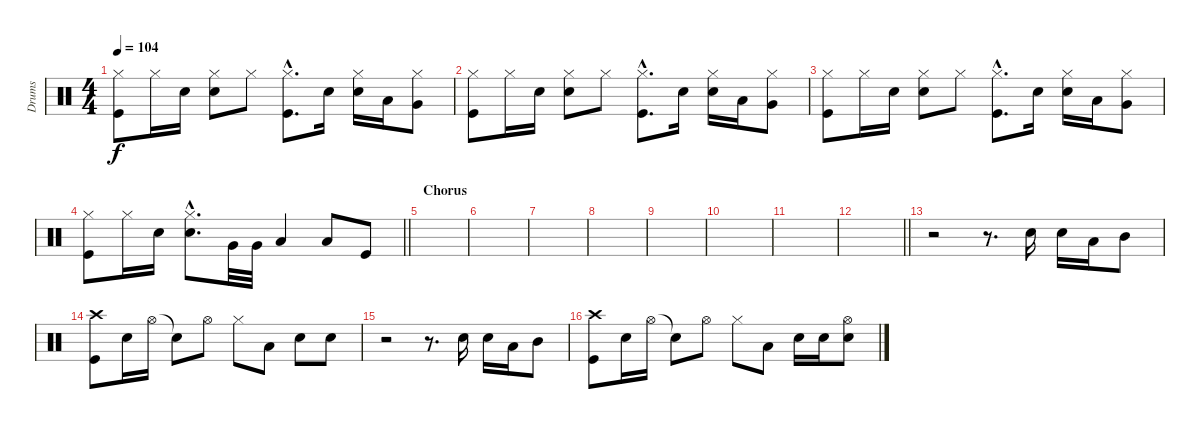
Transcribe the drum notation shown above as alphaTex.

\track ("Drums" "Drums") {instrument percussion}
\staff {score}
\articulation defaults
\ts (4 4)
\tempo 104
\clef neutral
\ks c
("Hi-Hat (closed)" "Kick (hit)").8{dy f} "Hi-Hat (closed)".16 "Snare (hit) 2".16 ("Hi-Hat (closed)" "Snare (hit) 2").8 "Hi-Hat (closed)".8 ("Hi-Hat (closed)"{hac} "Kick (hit)"{hac}).8{d} "Snare (hit) 2".16 ("Hi-Hat (closed)" "Snare (hit) 2").16 "Low Tom (hit)".16 ("Hi-Hat (closed)" "Very Low Tom (hit)").8 |
("Hi-Hat (closed)" "Kick (hit)").8 "Hi-Hat (closed)".16 "Snare (hit) 2".16 ("Hi-Hat (closed)" "Snare (hit) 2").8 "Hi-Hat (closed)".8 ("Hi-Hat (closed)"{hac} "Kick (hit)"{hac}).8{d} "Snare (hit) 2".16 ("Hi-Hat (closed)" "Snare (hit) 2").16 "Low Tom (hit)".16 ("Hi-Hat (closed)" "Very Low Tom (hit)").8 |
("Hi-Hat (closed)" "Kick (hit)").8 "Hi-Hat (closed)".16 "Snare (hit) 2".16 ("Hi-Hat (closed)" "Snare (hit) 2").8 "Hi-Hat (closed)".8 ("Hi-Hat (closed)"{hac} "Kick (hit)"{hac}).8{d} "Snare (hit) 2".16 ("Hi-Hat (closed)" "Snare (hit) 2").16 "Low Tom (hit)".16 ("Hi-Hat (closed)" "Very Low Tom (hit)").8 |
\barLineRight lightlight
("Hi-Hat (closed)" "Kick (hit)").8 "Hi-Hat (closed)".16 "Snare (hit) 2".16 ("Hi-Hat (closed)"{hac} "Snare (hit) 2"{hac}).8{d} "Very Low Tom (hit)".32 "Very Low Tom (hit)".32 "Low Floor Tom (hit)".4 "Low Floor Tom (hit)".8 "Kick (hit)".8 |
\section ("" "Chorus")
|
|
|
|
|
|
|
\barLineRight lightlight
|
r.2 r.8{d} "Snare (hit) 2".16 "Snare (hit) 2".16 "Low Tom (hit)".16 "Mid Tom (hit)".8 |
("Crash high (hit)" "Kick (hit)").8 "Snare (hit) 2".16 "Hi-Hat (open)".16 "Snare (hit)"{t}.8 "Hi-Hat (open)".8 "Hi-Hat (closed)".8 "Low Floor Tom (hit)".8 "Snare (hit) 2".8 "Snare (hit) 2".8 |
r.2 r.8{d} "Snare (hit) 2".16 "Snare (hit) 2".16 "Low Tom (hit)".16 "Mid Tom (hit)".8 |
("Crash high (hit)" "Kick (hit)").8 "Snare (hit) 2".16 "Hi-Hat (open)".16 "Snare (hit)"{t}.8 "Hi-Hat (open)".8 "Hi-Hat (closed)".8 "Low Floor Tom (hit)".8 "Snare (hit) 2".16 "Snare (hit) 2".16 ("Hi-Hat (open)" "Snare (hit) 2").8
